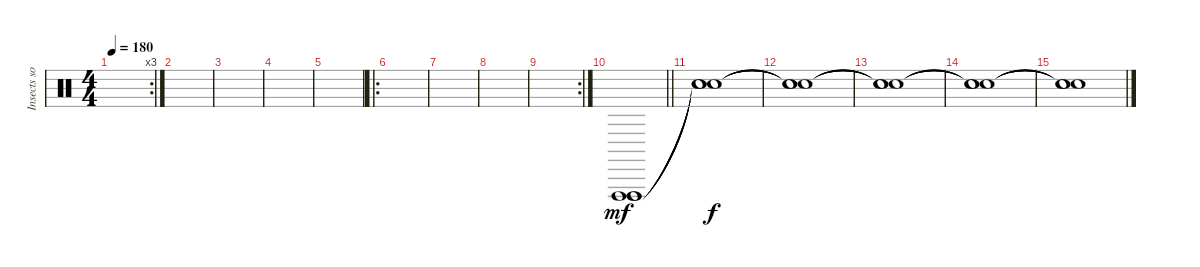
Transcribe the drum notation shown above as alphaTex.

\track ("Insects sound FX" "Insects so") {instrument percussion}
\staff {score}
\articulation defaults
\rc 3
\ts (4 4)
\tempo 180
\clef neutral
\ks c
|
|
|
|
|
\ro
|
|
|
\rc 2
|
\barLineRight lightlight
("Vibraslap (hit)" "Vibraslap (hit)" "Vibraslap (hit)").1{dy mf} |
("Snare (hit)"{t} "Snare (hit)"{t} "Snare (hit)"{t}).1{dy f} |
("Snare (hit)"{t} "Snare (hit)"{t} "Snare (hit)"{t}).1 |
("Snare (hit)"{t} "Snare (hit)"{t} "Snare (hit)"{t}).1 |
("Snare (hit)"{t} "Snare (hit)"{t} "Snare (hit)"{t}).1 |
("Snare (hit)"{t} "Snare (hit)"{t} "Snare (hit)"{t}).1
